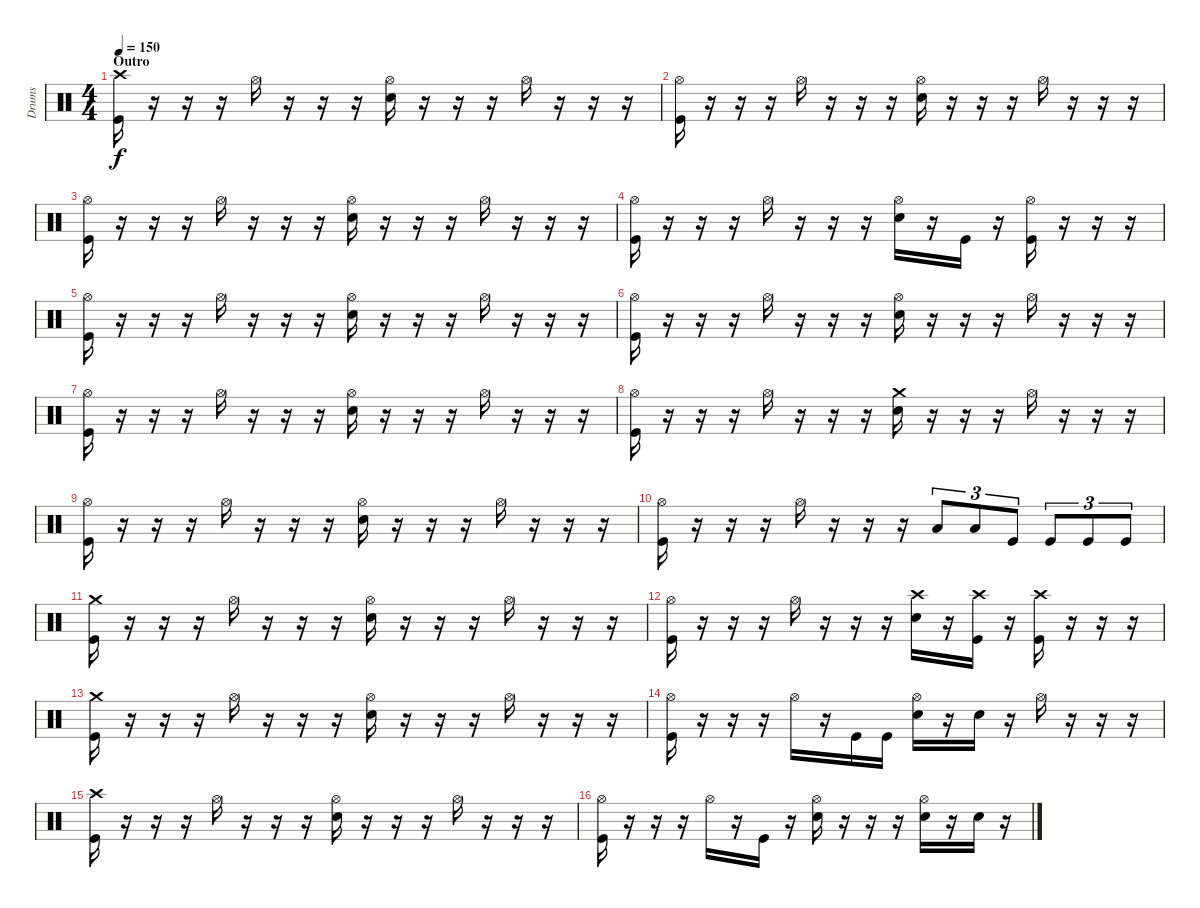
\track ("Drums" "Drums") {instrument percussion}
\staff {score}
\articulation defaults
\ts (4 4)
\section ("" "Outro")
\tempo 150
\clef neutral
\ks c
("Crash high (hit)" "Kick (hit)").16{dy f} r.16 r.16 r.16 "Hi-Hat (open)".16 r.16 r.16 r.16 ("Hi-Hat (open)" "Snare (hit) 2").16 r.16 r.16 r.16 "Hi-Hat (open)".16 r.16 r.16 r.16 |
("Hi-Hat (open)" "Kick (hit)").16 r.16 r.16 r.16 "Hi-Hat (open)".16 r.16 r.16 r.16 ("Hi-Hat (open)" "Snare (hit) 2").16 r.16 r.16 r.16 "Hi-Hat (open)".16 r.16 r.16 r.16 |
("Hi-Hat (open)" "Kick (hit)").16 r.16 r.16 r.16 "Hi-Hat (open)".16 r.16 r.16 r.16 ("Hi-Hat (open)" "Snare (hit) 2").16 r.16 r.16 r.16 "Hi-Hat (open)".16 r.16 r.16 r.16 |
("Hi-Hat (open)" "Kick (hit)").16 r.16 r.16 r.16 "Hi-Hat (open)".16 r.16 r.16 r.16 ("Hi-Hat (open)" "Snare (hit) 2").16 r.16 "Kick (hit)".16 r.16 ("Hi-Hat (open)" "Kick (hit)").16 r.16 r.16 r.16 |
("Hi-Hat (open)" "Kick (hit)").16 r.16 r.16 r.16 "Hi-Hat (open)".16 r.16 r.16 r.16 ("Hi-Hat (open)" "Snare (hit) 2").16 r.16 r.16 r.16 "Hi-Hat (open)".16 r.16 r.16 r.16 |
("Hi-Hat (open)" "Kick (hit)").16 r.16 r.16 r.16 "Hi-Hat (open)".16 r.16 r.16 r.16 ("Hi-Hat (open)" "Snare (hit) 2").16 r.16 r.16 r.16 "Hi-Hat (open)".16 r.16 r.16 r.16 |
("Hi-Hat (open)" "Kick (hit)").16 r.16 r.16 r.16 "Hi-Hat (open)".16 r.16 r.16 r.16 ("Hi-Hat (open)" "Snare (hit) 2").16 r.16 r.16 r.16 "Hi-Hat (open)".16 r.16 r.16 r.16 |
("Hi-Hat (open)" "Kick (hit)").16 r.16 r.16 r.16 "Hi-Hat (open)".16 r.16 r.16 r.16 ("Crash medium (hit)" "Snare (hit) 2").16 r.16 r.16 r.16 "Hi-Hat (open)".16 r.16 r.16 r.16 |
("Hi-Hat (open)" "Kick (hit)").16 r.16 r.16 r.16 "Hi-Hat (open)".16 r.16 r.16 r.16 ("Hi-Hat (open)" "Snare (hit) 2").16 r.16 r.16 r.16 "Hi-Hat (open)".16 r.16 r.16 r.16 |
("Hi-Hat (open)" "Kick (hit)").16 r.16 r.16 r.16 "Hi-Hat (open)".16 r.16 r.16 r.16 "Low Tom (hit)".8{tu (3 2)} "Low Tom (hit)".8{tu (3 2)} "Kick (hit)".8{tu (3 2)} "Kick (hit)".8{tu (3 2)} "Kick (hit)".8{tu (3 2)} "Kick (hit)".8{tu (3 2)} |
("Crash medium (hit)" "Kick (hit)").16 r.16 r.16 r.16 "Hi-Hat (open)".16 r.16 r.16 r.16 ("Hi-Hat (open)" "Snare (hit) 2").16 r.16 r.16 r.16 "Hi-Hat (open)".16 r.16 r.16 r.16 |
("Hi-Hat (open)" "Kick (hit)").16 r.16 r.16 r.16 "Hi-Hat (open)".16 r.16 r.16 r.16 ("Crash high (hit)" "Snare (hit) 2").16 r.16 ("Crash high (hit)" "Kick (hit)").16 r.16 ("Crash high (hit)" "Kick (hit)").16 r.16 r.16 r.16 |
("Crash medium (hit)" "Kick (hit)").16 r.16 r.16 r.16 "Hi-Hat (open)".16 r.16 r.16 r.16 ("Hi-Hat (open)" "Snare (hit) 2").16 r.16 r.16 r.16 "Hi-Hat (open)".16 r.16 r.16 r.16 |
("Hi-Hat (open)" "Kick (hit)").16 r.16 r.16 r.16 "Hi-Hat (open)".16 r.16 "Kick (hit)".16 "Kick (hit)".16 ("Hi-Hat (open)" "Snare (hit) 2").16 r.16 "Snare (hit) 2".16 r.16 "Hi-Hat (open)".16 r.16 r.16 r.16 |
("Crash high (hit)" "Kick (hit)").16 r.16 r.16 r.16 "Hi-Hat (open)".16 r.16 r.16 r.16 ("Hi-Hat (open)" "Snare (hit) 2").16 r.16 r.16 r.16 "Hi-Hat (open)".16 r.16 r.16 r.16 |
("Hi-Hat (open)" "Kick (hit)").16 r.16 r.16 r.16 "Hi-Hat (open)".16 r.16 "Kick (hit)".16 r.16 ("Hi-Hat (open)" "Snare (hit) 2").16 r.16 r.16 r.16 ("Hi-Hat (open)" "Snare (hit) 2").16 r.16 "Snare (hit) 2".16 r.16
